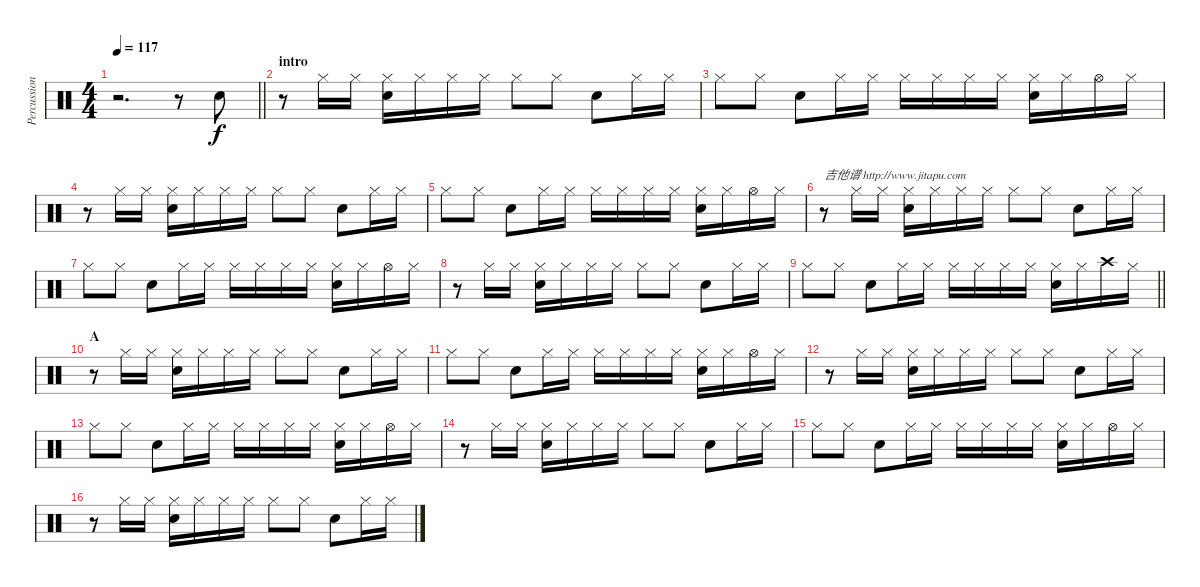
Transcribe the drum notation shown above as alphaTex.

\track ("Percussions" "Percussion") {instrument percussion}
\staff {score}
\articulation defaults
\ts (4 4)
\tempo 117
\clef neutral
\barLineRight lightlight
\ks c
r.2{d dy f} r.8 "Electric Snare (hit)".8 |
\section ("" "intro")
r.8 "Hi-Hat (closed)".16 "Hi-Hat (closed)".16 ("Hi-Hat (closed)" "Electric Snare (hit)").16 "Hi-Hat (closed)".16 "Hi-Hat (closed)".16 "Hi-Hat (closed)".16 "Hi-Hat (closed)".8 "Hi-Hat (closed)".8 "Electric Snare (hit)".8 "Hi-Hat (closed)".16 "Hi-Hat (closed)".16 |
"Hi-Hat (closed)".8 "Hi-Hat (closed)".8 "Electric Snare (hit)".8 "Hi-Hat (closed)".16 "Hi-Hat (closed)".16 "Hi-Hat (closed)".16 "Hi-Hat (closed)".16 "Hi-Hat (closed)".16 "Hi-Hat (closed)".16 ("Hi-Hat (closed)" "Electric Snare (hit)").16 "Hi-Hat (closed)".16 "Hi-Hat (open)".16 "Hi-Hat (closed)".16 |
r.8 "Hi-Hat (closed)".16 "Hi-Hat (closed)".16 ("Hi-Hat (closed)" "Electric Snare (hit)").16 "Hi-Hat (closed)".16 "Hi-Hat (closed)".16 "Hi-Hat (closed)".16 "Hi-Hat (closed)".8 "Hi-Hat (closed)".8 "Electric Snare (hit)".8 "Hi-Hat (closed)".16 "Hi-Hat (closed)".16 |
"Hi-Hat (closed)".8 "Hi-Hat (closed)".8 "Electric Snare (hit)".8 "Hi-Hat (closed)".16 "Hi-Hat (closed)".16 "Hi-Hat (closed)".16 "Hi-Hat (closed)".16 "Hi-Hat (closed)".16 "Hi-Hat (closed)".16 ("Hi-Hat (closed)" "Electric Snare (hit)").16 "Hi-Hat (closed)".16 "Hi-Hat (open)".16 "Hi-Hat (closed)".16 |
r.8{txt "吉他谱 http://www.jitapu.com"} "Hi-Hat (closed)".16 "Hi-Hat (closed)".16 ("Hi-Hat (closed)" "Electric Snare (hit)").16 "Hi-Hat (closed)".16 "Hi-Hat (closed)".16 "Hi-Hat (closed)".16 "Hi-Hat (closed)".8 "Hi-Hat (closed)".8 "Electric Snare (hit)".8 "Hi-Hat (closed)".16 "Hi-Hat (closed)".16 |
"Hi-Hat (closed)".8 "Hi-Hat (closed)".8 "Electric Snare (hit)".8 "Hi-Hat (closed)".16 "Hi-Hat (closed)".16 "Hi-Hat (closed)".16 "Hi-Hat (closed)".16 "Hi-Hat (closed)".16 "Hi-Hat (closed)".16 ("Hi-Hat (closed)" "Electric Snare (hit)").16 "Hi-Hat (closed)".16 "Hi-Hat (open)".16 "Hi-Hat (closed)".16 |
r.8 "Hi-Hat (closed)".16 "Hi-Hat (closed)".16 ("Hi-Hat (closed)" "Electric Snare (hit)").16 "Hi-Hat (closed)".16 "Hi-Hat (closed)".16 "Hi-Hat (closed)".16 "Hi-Hat (closed)".8 "Hi-Hat (closed)".8 "Electric Snare (hit)".8 "Hi-Hat (closed)".16 "Hi-Hat (closed)".16 |
\barLineRight lightlight "Hi-Hat (closed)".8 "Hi-Hat (closed)".8 "Electric Snare (hit)".8 "Hi-Hat (closed)".16 "Hi-Hat (closed)".16 "Hi-Hat (closed)".16 "Hi-Hat (closed)".16 "Hi-Hat (closed)".16 "Hi-Hat (closed)".16
("Hi-Hat (closed)" "Electric Snare (hit)").16 "Hi-Hat (closed)".16 "Crash high (hit)".16 "Hi-Hat (closed)".16 |
\section ("" "A")
r.8 "Hi-Hat (closed)".16 "Hi-Hat (closed)".16 ("Hi-Hat (closed)" "Electric Snare (hit)").16 "Hi-Hat (closed)".16 "Hi-Hat (closed)".16 "Hi-Hat (closed)".16 "Hi-Hat (closed)".8 "Hi-Hat (closed)".8 "Electric Snare (hit)".8 "Hi-Hat (closed)".16 "Hi-Hat (closed)".16 |
"Hi-Hat (closed)".8 "Hi-Hat (closed)".8 "Electric Snare (hit)".8 "Hi-Hat (closed)".16 "Hi-Hat (closed)".16 "Hi-Hat (closed)".16 "Hi-Hat (closed)".16 "Hi-Hat (closed)".16 "Hi-Hat (closed)".16 ("Hi-Hat (closed)" "Electric Snare (hit)").16 "Hi-Hat (closed)".16 "Hi-Hat (open)".16 "Hi-Hat (closed)".16 |
r.8 "Hi-Hat (closed)".16 "Hi-Hat (closed)".16 ("Hi-Hat (closed)" "Electric Snare (hit)").16 "Hi-Hat (closed)".16 "Hi-Hat (closed)".16 "Hi-Hat (closed)".16 "Hi-Hat (closed)".8 "Hi-Hat (closed)".8 "Electric Snare (hit)".8 "Hi-Hat (closed)".16 "Hi-Hat (closed)".16 |
"Hi-Hat (closed)".8 "Hi-Hat (closed)".8 "Electric Snare (hit)".8 "Hi-Hat (closed)".16 "Hi-Hat (closed)".16 "Hi-Hat (closed)".16 "Hi-Hat (closed)".16 "Hi-Hat (closed)".16 "Hi-Hat (closed)".16 ("Hi-Hat (closed)" "Electric Snare (hit)").16 "Hi-Hat (closed)".16 "Hi-Hat (open)".16 "Hi-Hat (closed)".16 |
r.8 "Hi-Hat (closed)".16 "Hi-Hat (closed)".16 ("Hi-Hat (closed)" "Electric Snare (hit)").16 "Hi-Hat (closed)".16 "Hi-Hat (closed)".16 "Hi-Hat (closed)".16 "Hi-Hat (closed)".8 "Hi-Hat (closed)".8 "Electric Snare (hit)".8 "Hi-Hat (closed)".16 "Hi-Hat (closed)".16 |
"Hi-Hat (closed)".8 "Hi-Hat (closed)".8 "Electric Snare (hit)".8 "Hi-Hat (closed)".16 "Hi-Hat (closed)".16 "Hi-Hat (closed)".16 "Hi-Hat (closed)".16 "Hi-Hat (closed)".16 "Hi-Hat (closed)".16 ("Hi-Hat (closed)" "Electric Snare (hit)").16 "Hi-Hat (closed)".16 "Hi-Hat (open)".16 "Hi-Hat (closed)".16 |
r.8 "Hi-Hat (closed)".16 "Hi-Hat (closed)".16 ("Hi-Hat (closed)" "Electric Snare (hit)").16 "Hi-Hat (closed)".16 "Hi-Hat (closed)".16 "Hi-Hat (closed)".16 "Hi-Hat (closed)".8 "Hi-Hat (closed)".8 "Electric Snare (hit)".8 "Hi-Hat (closed)".16 "Hi-Hat (closed)".16
